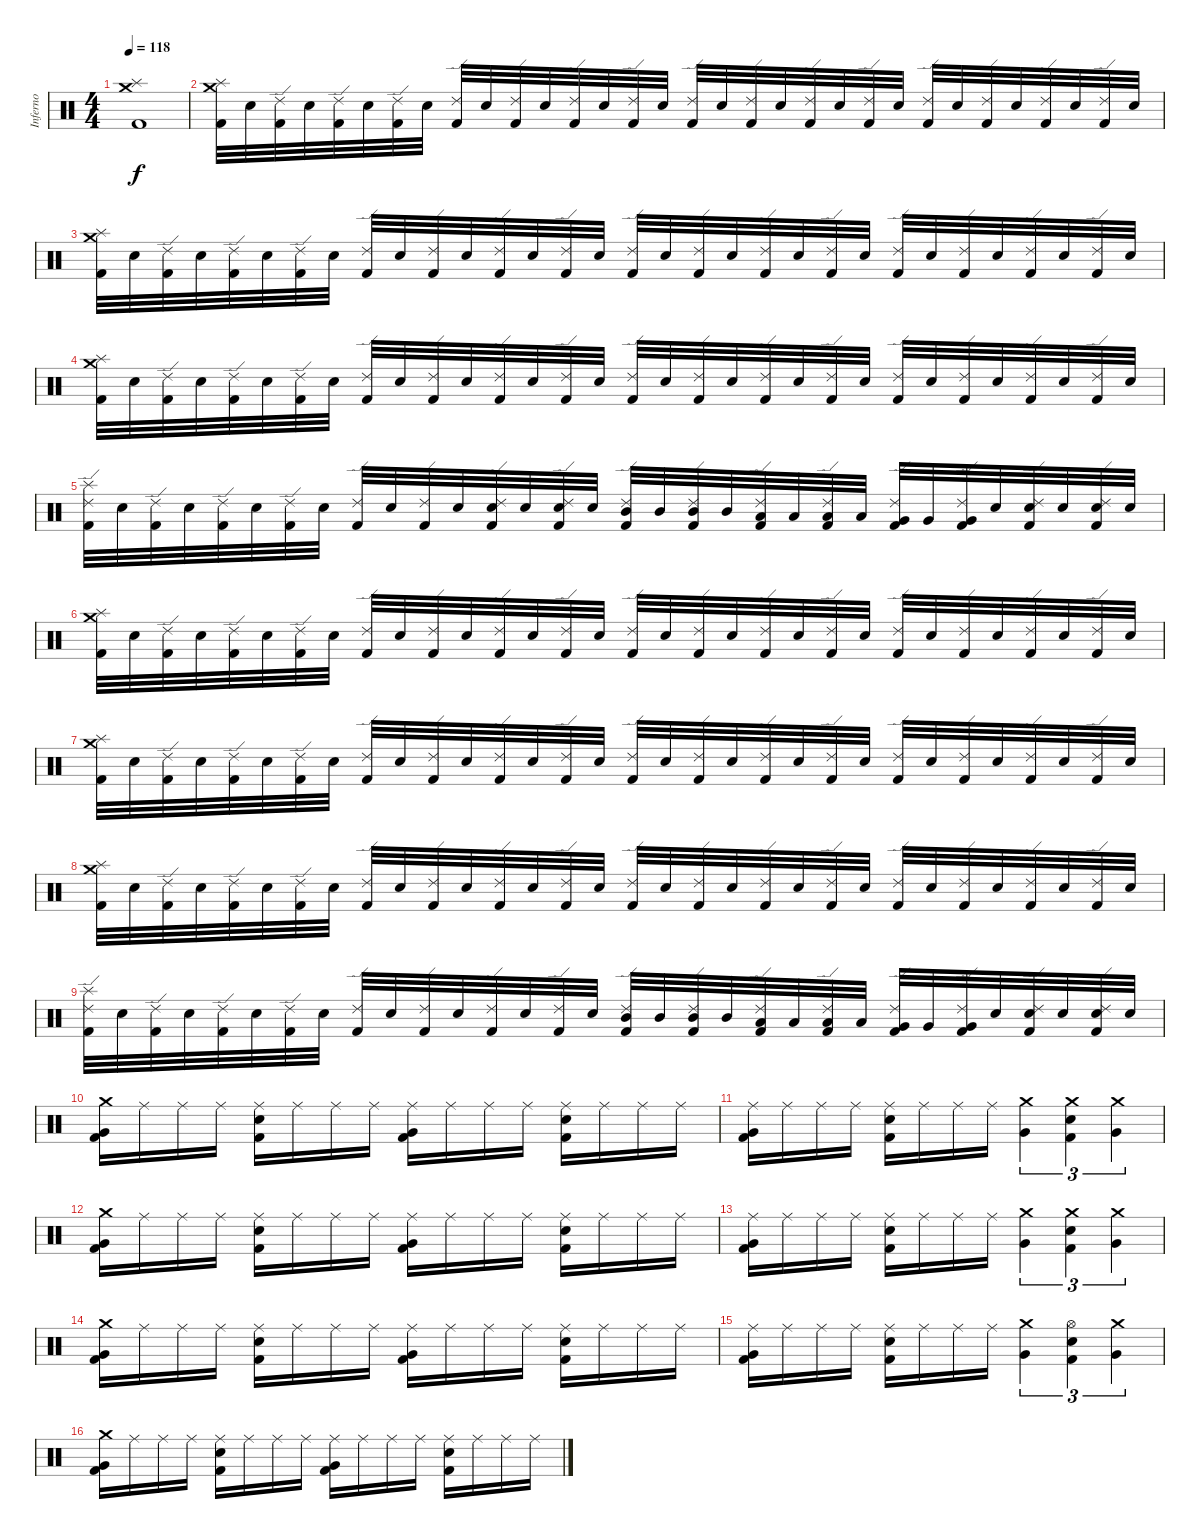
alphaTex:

\track ("Inferno" "Inferno") {instrument percussion}
\staff {score}
\articulation defaults
\ts (4 4)
\tempo 118
\clef neutral
\ks c
("Crash medium (hit)" "Splash (hit)" "Kick (hit) 2").1{dy f} |
("Crash medium (hit)" "Splash (hit)" "Kick (hit) 2").32 "Electric Snare (hit)".32 ("Ride (edge) 2" "Kick (hit) 2").32 "Electric Snare (hit)".32 ("Ride (edge) 2" "Kick (hit) 2").32 "Electric Snare (hit)".32 ("Ride (edge) 2" "Kick (hit) 2").32 "Electric Snare (hit)".32 ("Ride (edge) 2" "Kick (hit) 2").32 "Electric Snare (hit)".32 ("Ride (edge) 2" "Kick (hit) 2").32 "Electric Snare (hit)".32 ("Ride (edge) 2" "Kick (hit) 2").32 "Electric Snare (hit)".32 ("Ride (edge) 2" "Kick (hit) 2").32 "Electric Snare (hit)".32 ("Ride (edge) 2" "Kick (hit) 2").32 "Electric Snare (hit)".32 ("Ride (edge) 2" "Kick (hit) 2").32 "Electric Snare (hit)".32 ("Ride (edge) 2" "Kick (hit) 2").32 "Electric Snare (hit)".32 ("Ride (edge) 2" "Kick (hit) 2").32 "Electric Snare (hit)".32 ("Ride (edge) 2" "Kick (hit) 2").32 "Electric Snare (hit)".32 ("Ride (edge) 2" "Kick (hit) 2").32 "Electric Snare (hit)".32 ("Ride (edge) 2" "Kick (hit) 2").32 "Electric Snare (hit)".32 ("Ride (edge) 2" "Kick (hit) 2").32 "Electric Snare (hit)".32 |
("Crash medium (hit)" "Splash (hit)" "Kick (hit) 2").32 "Electric Snare (hit)".32 ("Ride (edge) 2" "Kick (hit) 2").32 "Electric Snare (hit)".32 ("Ride (edge) 2" "Kick (hit) 2").32 "Electric Snare (hit)".32 ("Ride (edge) 2" "Kick (hit) 2").32 "Electric Snare (hit)".32 ("Ride (edge) 2" "Kick (hit) 2").32 "Electric Snare (hit)".32 ("Ride (edge) 2" "Kick (hit) 2").32 "Electric Snare (hit)".32 ("Ride (edge) 2" "Kick (hit) 2").32 "Electric Snare (hit)".32 ("Ride (edge) 2" "Kick (hit) 2").32 "Electric Snare (hit)".32 ("Ride (edge) 2" "Kick (hit) 2").32 "Electric Snare (hit)".32 ("Ride (edge) 2" "Kick (hit) 2").32 "Electric Snare (hit)".32 ("Ride (edge) 2" "Kick (hit) 2").32 "Electric Snare (hit)".32 ("Ride (edge) 2" "Kick (hit) 2").32 "Electric Snare (hit)".32 ("Ride (edge) 2" "Kick (hit) 2").32 "Electric Snare (hit)".32 ("Ride (edge) 2" "Kick (hit) 2").32 "Electric Snare (hit)".32 ("Ride (edge) 2" "Kick (hit) 2").32 "Electric Snare (hit)".32 ("Ride (edge) 2" "Kick (hit) 2").32 "Electric Snare (hit)".32 |
("Crash medium (hit)" "Splash (hit)" "Kick (hit) 2").32 "Electric Snare (hit)".32 ("Ride (edge) 2" "Kick (hit) 2").32 "Electric Snare (hit)".32 ("Ride (edge) 2" "Kick (hit) 2").32 "Electric Snare (hit)".32 ("Ride (edge) 2" "Kick (hit) 2").32 "Electric Snare (hit)".32 ("Ride (edge) 2" "Kick (hit) 2").32 "Electric Snare (hit)".32 ("Ride (edge) 2" "Kick (hit) 2").32 "Electric Snare (hit)".32 ("Ride (edge) 2" "Kick (hit) 2").32 "Electric Snare (hit)".32 ("Ride (edge) 2" "Kick (hit) 2").32 "Electric Snare (hit)".32 ("Ride (edge) 2" "Kick (hit) 2").32 "Electric Snare (hit)".32 ("Ride (edge) 2" "Kick (hit) 2").32 "Electric Snare (hit)".32 ("Ride (edge) 2" "Kick (hit) 2").32 "Electric Snare (hit)".32 ("Ride (edge) 2" "Kick (hit) 2").32 "Electric Snare (hit)".32 ("Ride (edge) 2" "Kick (hit) 2").32 "Electric Snare (hit)".32 ("Ride (edge) 2" "Kick (hit) 2").32 "Electric Snare (hit)".32 ("Ride (edge) 2" "Kick (hit) 2").32 "Electric Snare (hit)".32 ("Ride (edge) 2" "Kick (hit) 2").32 "Electric Snare (hit)".32 |
("Ride (edge) 2" "Splash (hit)" "Kick (hit) 2").32 "Electric Snare (hit)".32 ("Ride (edge) 2" "Kick (hit) 2").32 "Electric Snare (hit)".32 ("Ride (edge) 2" "Kick (hit) 2").32 "Electric Snare (hit)".32 ("Ride (edge) 2" "Kick (hit) 2").32 "Electric Snare (hit)".32 ("Ride (edge) 2" "Kick (hit) 2").32 "Electric Snare (hit)".32 ("Ride (edge) 2" "Kick (hit) 2").32 "Electric Snare (hit)".32 ("Ride (edge) 2" "Electric Snare (hit)" "Kick (hit) 2").32 "Electric Snare (hit)".32 ("Ride (edge) 2" "Electric Snare (hit)" "Kick (hit) 2").32 "Electric Snare (hit)".32 ("Ride (edge) 2" "Mid Tom (hit)" "Kick (hit) 2").32 "Mid Tom (hit)".32 ("Ride (edge) 2" "Mid Tom (hit)" "Kick (hit) 2").32 "Mid Tom (hit)".32 ("Ride (edge) 2" "Low Tom (hit)" "Kick (hit) 2").32 "Low Tom (hit)".32 ("Ride (edge) 2" "Low Tom (hit)" "Kick (hit) 2").32 "Low Tom (hit)".32 ("Ride (edge) 2" "Very Low Tom (hit)" "Kick (hit) 2").32 "Very Low Tom (hit)".32 ("Ride (edge) 2" "Very Low Tom (hit)" "Kick (hit) 2").32 "Electric Snare (hit)".32 ("Ride (edge) 2" "Electric Snare (hit)" "Kick (hit) 2").32 "Electric Snare (hit)".32 ("Ride (edge) 2" "Electric Snare (hit)" "Kick (hit) 2").32 "Electric Snare (hit)".32 |
("Crash medium (hit)" "Splash (hit)" "Kick (hit) 2").32 "Electric Snare (hit)".32 ("Ride (edge) 2" "Kick (hit) 2").32 "Electric Snare (hit)".32 ("Ride (edge) 2" "Kick (hit) 2").32 "Electric Snare (hit)".32 ("Ride (edge) 2" "Kick (hit) 2").32 "Electric Snare (hit)".32 ("Ride (edge) 2" "Kick (hit) 2").32 "Electric Snare (hit)".32 ("Ride (edge) 2" "Kick (hit) 2").32 "Electric Snare (hit)".32 ("Ride (edge) 2" "Kick (hit) 2").32 "Electric Snare (hit)".32 ("Ride (edge) 2" "Kick (hit) 2").32 "Electric Snare (hit)".32 ("Ride (edge) 2" "Kick (hit) 2").32 "Electric Snare (hit)".32 ("Ride (edge) 2" "Kick (hit) 2").32 "Electric Snare (hit)".32 ("Ride (edge) 2" "Kick (hit) 2").32 "Electric Snare (hit)".32 ("Ride (edge) 2" "Kick (hit) 2").32 "Electric Snare (hit)".32 ("Ride (edge) 2" "Kick (hit) 2").32 "Electric Snare (hit)".32 ("Ride (edge) 2" "Kick (hit) 2").32 "Electric Snare (hit)".32 ("Ride (edge) 2" "Kick (hit) 2").32 "Electric Snare (hit)".32 ("Ride (edge) 2" "Kick (hit) 2").32 "Electric Snare (hit)".32 |
("Crash medium (hit)" "Splash (hit)" "Kick (hit) 2").32 "Electric Snare (hit)".32 ("Ride (edge) 2" "Kick (hit) 2").32 "Electric Snare (hit)".32 ("Ride (edge) 2" "Kick (hit) 2").32 "Electric Snare (hit)".32 ("Ride (edge) 2" "Kick (hit) 2").32 "Electric Snare (hit)".32 ("Ride (edge) 2" "Kick (hit) 2").32 "Electric Snare (hit)".32 ("Ride (edge) 2" "Kick (hit) 2").32 "Electric Snare (hit)".32 ("Ride (edge) 2" "Kick (hit) 2").32 "Electric Snare (hit)".32 ("Ride (edge) 2" "Kick (hit) 2").32 "Electric Snare (hit)".32 ("Ride (edge) 2" "Kick (hit) 2").32 "Electric Snare (hit)".32 ("Ride (edge) 2" "Kick (hit) 2").32 "Electric Snare (hit)".32 ("Ride (edge) 2" "Kick (hit) 2").32 "Electric Snare (hit)".32 ("Ride (edge) 2" "Kick (hit) 2").32 "Electric Snare (hit)".32 ("Ride (edge) 2" "Kick (hit) 2").32 "Electric Snare (hit)".32 ("Ride (edge) 2" "Kick (hit) 2").32 "Electric Snare (hit)".32 ("Ride (edge) 2" "Kick (hit) 2").32 "Electric Snare (hit)".32 ("Ride (edge) 2" "Kick (hit) 2").32 "Electric Snare (hit)".32 |
("Crash medium (hit)" "Splash (hit)" "Kick (hit) 2").32 "Electric Snare (hit)".32 ("Ride (edge) 2" "Kick (hit) 2").32 "Electric Snare (hit)".32 ("Ride (edge) 2" "Kick (hit) 2").32 "Electric Snare (hit)".32 ("Ride (edge) 2" "Kick (hit) 2").32 "Electric Snare (hit)".32 ("Ride (edge) 2" "Kick (hit) 2").32 "Electric Snare (hit)".32 ("Ride (edge) 2" "Kick (hit) 2").32 "Electric Snare (hit)".32 ("Ride (edge) 2" "Kick (hit) 2").32 "Electric Snare (hit)".32 ("Ride (edge) 2" "Kick (hit) 2").32 "Electric Snare (hit)".32 ("Ride (edge) 2" "Kick (hit) 2").32 "Electric Snare (hit)".32 ("Ride (edge) 2" "Kick (hit) 2").32 "Electric Snare (hit)".32 ("Ride (edge) 2" "Kick (hit) 2").32 "Electric Snare (hit)".32 ("Ride (edge) 2" "Kick (hit) 2").32 "Electric Snare (hit)".32 ("Ride (edge) 2" "Kick (hit) 2").32 "Electric Snare (hit)".32 ("Ride (edge) 2" "Kick (hit) 2").32 "Electric Snare (hit)".32 ("Ride (edge) 2" "Kick (hit) 2").32 "Electric Snare (hit)".32 ("Ride (edge) 2" "Kick (hit) 2").32 "Electric Snare (hit)".32 |
("Ride (edge) 2" "Splash (hit)" "Kick (hit) 2").32 "Electric Snare (hit)".32 ("Ride (edge) 2" "Kick (hit) 2").32 "Electric Snare (hit)".32 ("Ride (edge) 2" "Kick (hit) 2").32 "Electric Snare (hit)".32 ("Ride (edge) 2" "Kick (hit) 2").32 "Electric Snare (hit)".32 ("Ride (edge) 2" "Kick (hit) 2").32 "Electric Snare (hit)".32 ("Ride (edge) 2" "Kick (hit) 2").32 "Electric Snare (hit)".32 ("Ride (edge) 2" "Kick (hit) 2").32 "Electric Snare (hit)".32 ("Ride (edge) 2" "Kick (hit) 2").32 "Electric Snare (hit)".32 ("Ride (edge) 2" "Mid Tom (hit)" "Kick (hit) 2").32 "Mid Tom (hit)".32 ("Ride (edge) 2" "Mid Tom (hit)" "Kick (hit) 2").32 "Mid Tom (hit)".32 ("Ride (edge) 2" "Low Tom (hit)" "Kick (hit) 2").32 "Low Tom (hit)".32 ("Ride (edge) 2" "Low Tom (hit)" "Kick (hit) 2").32 "Low Tom (hit)".32 ("Ride (edge) 2" "Very Low Tom (hit)" "Kick (hit) 2").32 "Very Low Tom (hit)".32 ("Ride (edge) 2" "Very Low Tom (hit)" "Kick (hit) 2").32 "Electric Snare (hit)".32 ("Ride (edge) 2" "Electric Snare (hit)" "Kick (hit) 2").32 "Electric Snare (hit)".32 ("Ride (edge) 2" "Electric Snare (hit)" "Kick (hit) 2").32 "Electric Snare (hit)".32 |
("Crash medium (hit)" "Very Low Tom (hit)" "Kick (hit) 2").16 "Ride (middle)".16 "Ride (middle)".16 "Ride (middle)".16 ("Ride (middle)" "Electric Snare (hit)" "Kick (hit) 2").16 "Ride (middle)".16 "Ride (middle)".16 "Ride (middle)".16 ("Ride (middle)" "Very Low Tom (hit)" "Kick (hit) 2").16 "Ride (middle)".16 "Ride (middle)".16 "Ride (middle)".16 ("Ride (middle)" "Electric Snare (hit)" "Kick (hit) 2").16 "Ride (middle)".16 "Ride (middle)".16 "Ride (middle)".16 |
("Ride (middle)" "Very Low Tom (hit)" "Kick (hit) 2").16 "Ride (middle)".16 "Ride (middle)".16 "Ride (middle)".16 ("Ride (middle)" "Electric Snare (hit)" "Kick (hit) 2").16 "Ride (middle)".16 "Ride (middle)".16 "Ride (middle)".16 ("Crash medium (hit)" "Very Low Tom (hit)").4{tu (3 2)} ("Crash medium (hit)" "Electric Snare (hit)" "Kick (hit) 2").4{tu (3 2)} ("Crash medium (hit)" "Very Low Tom (hit)").4{tu (3 2)} |
("Crash medium (hit)" "Very Low Tom (hit)" "Kick (hit) 2").16 "Ride (middle)".16 "Ride (middle)".16 "Ride (middle)".16 ("Ride (middle)" "Electric Snare (hit)" "Kick (hit) 2").16 "Ride (middle)".16 "Ride (middle)".16 "Ride (middle)".16 ("Ride (middle)" "Very Low Tom (hit)" "Kick (hit) 2").16 "Ride (middle)".16 "Ride (middle)".16 "Ride (middle)".16 ("Ride (middle)" "Electric Snare (hit)" "Kick (hit) 2").16 "Ride (middle)".16 "Ride (middle)".16 "Ride (middle)".16 |
("Ride (middle)" "Very Low Tom (hit)" "Kick (hit) 2").16 "Ride (middle)".16 "Ride (middle)".16 "Ride (middle)".16 ("Ride (middle)" "Electric Snare (hit)" "Kick (hit) 2").16 "Ride (middle)".16 "Ride (middle)".16 "Ride (middle)".16 ("Crash medium (hit)" "Very Low Tom (hit)").4{tu (3 2)} ("Crash medium (hit)" "Electric Snare (hit)" "Kick (hit) 2").4{tu (3 2)} ("Crash medium (hit)" "Very Low Tom (hit)").4{tu (3 2)} |
("Crash medium (hit)" "Very Low Tom (hit)" "Kick (hit) 2").16 "Ride (middle)".16 "Ride (middle)".16 "Ride (middle)".16 ("Ride (middle)" "Electric Snare (hit)" "Kick (hit) 2").16 "Ride (middle)".16 "Ride (middle)".16 "Ride (middle)".16 ("Ride (middle)" "Very Low Tom (hit)" "Kick (hit) 2").16 "Ride (middle)".16 "Ride (middle)".16 "Ride (middle)".16 ("Ride (middle)" "Electric Snare (hit)" "Kick (hit) 2").16 "Ride (middle)".16 "Ride (middle)".16 "Ride (middle)".16 |
("Ride (middle)" "Very Low Tom (hit)" "Kick (hit) 2").16 "Ride (middle)".16 "Ride (middle)".16 "Ride (middle)".16 ("Ride (middle)" "Electric Snare (hit)" "Kick (hit) 2").16 "Ride (middle)".16 "Ride (middle)".16 "Ride (middle)".16 ("Crash medium (hit)" "Very Low Tom (hit)").4{tu (3 2)} ("Hi-Hat (open)" "Electric Snare (hit)" "Kick (hit) 2").4{tu (3 2)} ("Crash medium (hit)" "Very Low Tom (hit)").4{tu (3 2)} |
("Crash medium (hit)" "Very Low Tom (hit)" "Kick (hit) 2").16 "Ride (middle)".16 "Ride (middle)".16 "Ride (middle)".16 ("Ride (middle)" "Electric Snare (hit)" "Kick (hit) 2").16 "Ride (middle)".16 "Ride (middle)".16 "Ride (middle)".16 ("Ride (middle)" "Very Low Tom (hit)" "Kick (hit) 2").16 "Ride (middle)".16 "Ride (middle)".16 "Ride (middle)".16 ("Ride (middle)" "Electric Snare (hit)" "Kick (hit) 2").16 "Ride (middle)".16 "Ride (middle)".16 "Ride (middle)".16
